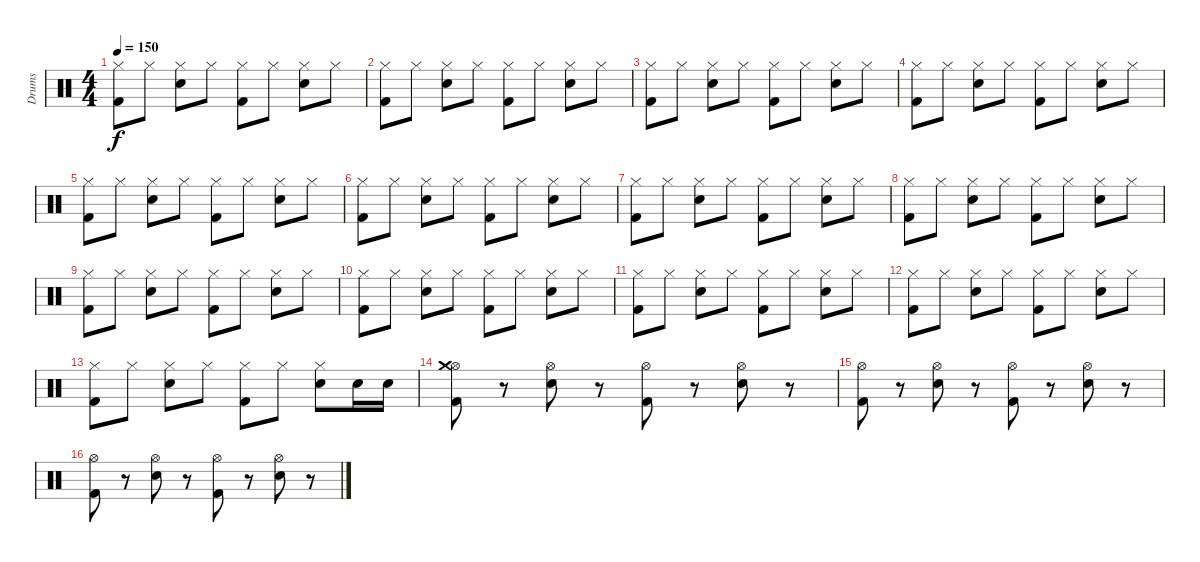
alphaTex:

\track ("Drums" "Drums") {instrument percussion}
\staff {score}
\articulation defaults
\ts (4 4)
\tempo 150
\clef neutral
\ks c
("Hi-Hat (closed)" "Kick (hit) 2").8{dy f} "Hi-Hat (closed)".8 ("Hi-Hat (closed)" "Electric Snare (hit)").8 "Hi-Hat (closed)".8 ("Hi-Hat (closed)" "Kick (hit) 2").8 "Hi-Hat (closed)".8 ("Hi-Hat (closed)" "Electric Snare (hit)").8 "Hi-Hat (closed)".8 |
("Hi-Hat (closed)" "Kick (hit) 2").8 "Hi-Hat (closed)".8 ("Hi-Hat (closed)" "Electric Snare (hit)").8 "Hi-Hat (closed)".8 ("Hi-Hat (closed)" "Kick (hit) 2").8 "Hi-Hat (closed)".8 ("Hi-Hat (closed)" "Electric Snare (hit)").8 "Hi-Hat (closed)".8 |
("Hi-Hat (closed)" "Kick (hit) 2").8 "Hi-Hat (closed)".8 ("Hi-Hat (closed)" "Electric Snare (hit)").8 "Hi-Hat (closed)".8 ("Hi-Hat (closed)" "Kick (hit) 2").8 "Hi-Hat (closed)".8 ("Hi-Hat (closed)" "Electric Snare (hit)").8 "Hi-Hat (closed)".8 |
("Hi-Hat (closed)" "Kick (hit) 2").8 "Hi-Hat (closed)".8 ("Hi-Hat (closed)" "Electric Snare (hit)").8 "Hi-Hat (closed)".8 ("Hi-Hat (closed)" "Kick (hit) 2").8 "Hi-Hat (closed)".8 ("Hi-Hat (closed)" "Electric Snare (hit)").8 "Hi-Hat (closed)".8 |
("Hi-Hat (closed)" "Kick (hit) 2").8 "Hi-Hat (closed)".8 ("Hi-Hat (closed)" "Electric Snare (hit)").8 "Hi-Hat (closed)".8 ("Hi-Hat (closed)" "Kick (hit) 2").8 "Hi-Hat (closed)".8 ("Hi-Hat (closed)" "Electric Snare (hit)").8 "Hi-Hat (closed)".8 |
("Hi-Hat (closed)" "Kick (hit) 2").8 "Hi-Hat (closed)".8 ("Hi-Hat (closed)" "Electric Snare (hit)").8 "Hi-Hat (closed)".8 ("Hi-Hat (closed)" "Kick (hit) 2").8 "Hi-Hat (closed)".8 ("Hi-Hat (closed)" "Electric Snare (hit)").8 "Hi-Hat (closed)".8 |
("Hi-Hat (closed)" "Kick (hit) 2").8 "Hi-Hat (closed)".8 ("Hi-Hat (closed)" "Electric Snare (hit)").8 "Hi-Hat (closed)".8 ("Hi-Hat (closed)" "Kick (hit) 2").8 "Hi-Hat (closed)".8 ("Hi-Hat (closed)" "Electric Snare (hit)").8 "Hi-Hat (closed)".8 |
("Hi-Hat (closed)" "Kick (hit) 2").8 "Hi-Hat (closed)".8 ("Hi-Hat (closed)" "Electric Snare (hit)").8 "Hi-Hat (closed)".8 ("Hi-Hat (closed)" "Kick (hit) 2").8 "Hi-Hat (closed)".8 ("Hi-Hat (closed)" "Electric Snare (hit)").8 "Hi-Hat (closed)".8 |
("Hi-Hat (closed)" "Kick (hit) 2").8 "Hi-Hat (closed)".8 ("Hi-Hat (closed)" "Electric Snare (hit)").8 "Hi-Hat (closed)".8 ("Hi-Hat (closed)" "Kick (hit) 2").8 "Hi-Hat (closed)".8 ("Hi-Hat (closed)" "Electric Snare (hit)").8 "Hi-Hat (closed)".8 |
("Hi-Hat (closed)" "Kick (hit) 2").8 "Hi-Hat (closed)".8 ("Hi-Hat (closed)" "Electric Snare (hit)").8 "Hi-Hat (closed)".8 ("Hi-Hat (closed)" "Kick (hit) 2").8 "Hi-Hat (closed)".8 ("Hi-Hat (closed)" "Electric Snare (hit)").8 "Hi-Hat (closed)".8 |
("Hi-Hat (closed)" "Kick (hit) 2").8 "Hi-Hat (closed)".8 ("Hi-Hat (closed)" "Electric Snare (hit)").8 "Hi-Hat (closed)".8 ("Hi-Hat (closed)" "Kick (hit) 2").8 "Hi-Hat (closed)".8 ("Hi-Hat (closed)" "Electric Snare (hit)").8 "Hi-Hat (closed)".8 |
("Hi-Hat (closed)" "Kick (hit) 2").8 "Hi-Hat (closed)".8 ("Hi-Hat (closed)" "Electric Snare (hit)").8 "Hi-Hat (closed)".8 ("Hi-Hat (closed)" "Kick (hit) 2").8 "Hi-Hat (closed)".8 ("Hi-Hat (closed)" "Electric Snare (hit)").8 "Hi-Hat (closed)".8 |
("Hi-Hat (closed)" "Kick (hit) 2").8 "Hi-Hat (closed)".8 ("Hi-Hat (closed)" "Electric Snare (hit)").8 "Hi-Hat (closed)".8 ("Hi-Hat (closed)" "Kick (hit) 2").8 "Hi-Hat (closed)".8 ("Hi-Hat (closed)" "Electric Snare (hit)").8 "Electric Snare (hit)".16 "Electric Snare (hit)".16 |
("Hi-Hat (open)" "Kick (hit) 2" "Crash medium (hit)").8 r.8 ("Hi-Hat (open)" "Electric Snare (hit)").8 r.8 ("Hi-Hat (open)" "Kick (hit) 2").8 r.8 ("Hi-Hat (open)" "Electric Snare (hit)").8 r.8 |
("Hi-Hat (open)" "Kick (hit) 2").8 r.8 ("Hi-Hat (open)" "Electric Snare (hit)").8 r.8 ("Hi-Hat (open)" "Kick (hit) 2").8 r.8 ("Hi-Hat (open)" "Electric Snare (hit)").8 r.8 |
("Hi-Hat (open)" "Kick (hit) 2").8 r.8 ("Hi-Hat (open)" "Electric Snare (hit)").8 r.8 ("Hi-Hat (open)" "Kick (hit) 2").8 r.8 ("Hi-Hat (open)" "Electric Snare (hit)").8 r.8
